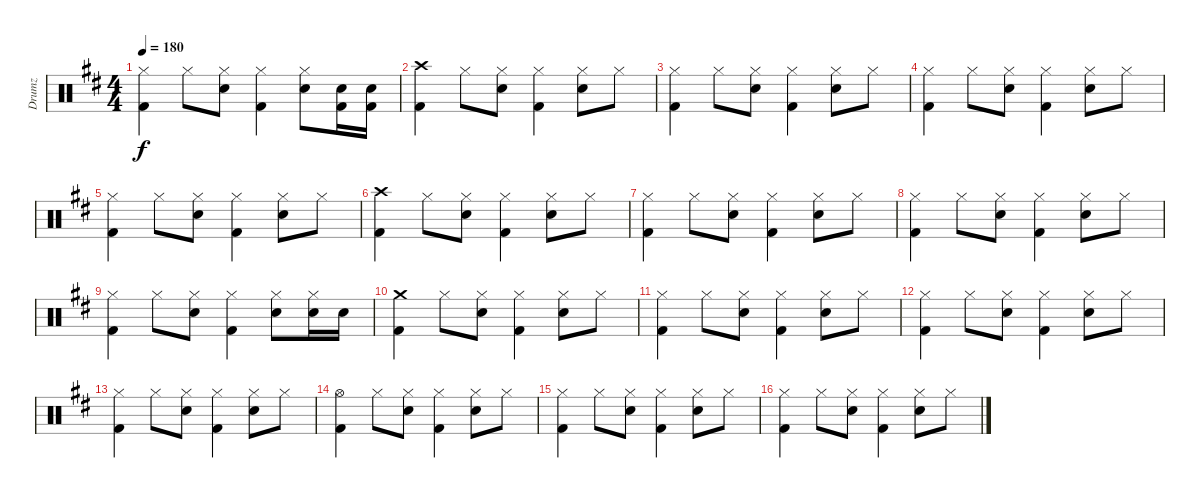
\track ("Drumz" "Drumz") {instrument percussion}
\staff {score}
\articulation defaults
\ts (4 4)
\tempo 180
\clef neutral
\ks d
("Hi-Hat (closed)" "Kick (hit) 2").4{dy f} "Hi-Hat (closed)".8 ("Hi-Hat (closed)" "Snare (hit) 2").8 ("Hi-Hat (closed)" "Kick (hit) 2").4 ("Hi-Hat (closed)" "Snare (hit) 2").8 ("Kick (hit) 2" "Snare (hit) 2").16 ("Kick (hit) 2" "Snare (hit) 2").16 |
("Crash high (hit)" "Kick (hit) 2").4 "Hi-Hat (closed)".8 ("Hi-Hat (closed)" "Snare (hit) 2").8 ("Hi-Hat (closed)" "Kick (hit) 2").4 ("Hi-Hat (closed)" "Snare (hit) 2").8 "Hi-Hat (closed)".8 |
("Hi-Hat (closed)" "Kick (hit) 2").4 "Hi-Hat (closed)".8 ("Hi-Hat (closed)" "Snare (hit) 2").8 ("Hi-Hat (closed)" "Kick (hit) 2").4 ("Hi-Hat (closed)" "Snare (hit) 2").8 "Hi-Hat (closed)".8 |
("Hi-Hat (closed)" "Kick (hit) 2").4 "Hi-Hat (closed)".8 ("Hi-Hat (closed)" "Snare (hit) 2").8 ("Hi-Hat (closed)" "Kick (hit) 2").4 ("Hi-Hat (closed)" "Snare (hit) 2").8 "Hi-Hat (closed)".8 |
("Hi-Hat (closed)" "Kick (hit) 2").4 "Hi-Hat (closed)".8 ("Hi-Hat (closed)" "Snare (hit) 2").8 ("Hi-Hat (closed)" "Kick (hit) 2").4 ("Hi-Hat (closed)" "Snare (hit) 2").8 "Hi-Hat (closed)".8 |
("Crash high (hit)" "Kick (hit) 2").4 "Hi-Hat (closed)".8 ("Hi-Hat (closed)" "Snare (hit) 2").8 ("Hi-Hat (closed)" "Kick (hit) 2").4 ("Hi-Hat (closed)" "Snare (hit) 2").8 "Hi-Hat (closed)".8 |
("Hi-Hat (closed)" "Kick (hit) 2").4 "Hi-Hat (closed)".8 ("Hi-Hat (closed)" "Snare (hit) 2").8 ("Hi-Hat (closed)" "Kick (hit) 2").4 ("Hi-Hat (closed)" "Snare (hit) 2").8 "Hi-Hat (closed)".8 |
("Hi-Hat (closed)" "Kick (hit) 2").4 "Hi-Hat (closed)".8 ("Hi-Hat (closed)" "Snare (hit) 2").8 ("Hi-Hat (closed)" "Kick (hit) 2").4 ("Hi-Hat (closed)" "Snare (hit) 2").8 "Hi-Hat (closed)".8 |
("Hi-Hat (closed)" "Kick (hit) 2").4 "Hi-Hat (closed)".8 ("Hi-Hat (closed)" "Snare (hit) 2").8 ("Hi-Hat (closed)" "Kick (hit) 2").4 ("Hi-Hat (closed)" "Snare (hit) 2").8 ("Hi-Hat (closed)" "Snare (hit) 2").16 "Snare (hit) 2".16 |
("Crash medium (hit)" "Kick (hit) 2").4 "Hi-Hat (closed)".8 ("Hi-Hat (closed)" "Snare (hit) 2").8 ("Hi-Hat (closed)" "Kick (hit) 2").4 ("Hi-Hat (closed)" "Snare (hit) 2").8 "Hi-Hat (closed)".8 |
("Hi-Hat (closed)" "Kick (hit) 2").4 "Hi-Hat (closed)".8 ("Hi-Hat (closed)" "Snare (hit) 2").8 ("Hi-Hat (closed)" "Kick (hit) 2").4 ("Hi-Hat (closed)" "Snare (hit) 2").8 "Hi-Hat (closed)".8 |
("Hi-Hat (closed)" "Kick (hit) 2").4 "Hi-Hat (closed)".8 ("Hi-Hat (closed)" "Snare (hit) 2").8 ("Hi-Hat (closed)" "Kick (hit) 2").4 ("Hi-Hat (closed)" "Snare (hit) 2").8 "Hi-Hat (closed)".8 |
("Hi-Hat (closed)" "Kick (hit) 2").4 "Hi-Hat (closed)".8 ("Hi-Hat (closed)" "Snare (hit) 2").8 ("Hi-Hat (closed)" "Kick (hit) 2").4 ("Hi-Hat (closed)" "Snare (hit) 2").8 "Hi-Hat (closed)".8 |
("Hi-Hat (open)" "Kick (hit) 2").4 "Hi-Hat (closed)".8 ("Hi-Hat (closed)" "Snare (hit) 2").8 ("Hi-Hat (closed)" "Kick (hit) 2").4 ("Hi-Hat (closed)" "Snare (hit) 2").8 "Hi-Hat (closed)".8 |
("Hi-Hat (closed)" "Kick (hit) 2").4 "Hi-Hat (closed)".8 ("Hi-Hat (closed)" "Snare (hit) 2").8 ("Hi-Hat (closed)" "Kick (hit) 2").4 ("Hi-Hat (closed)" "Snare (hit) 2").8 "Hi-Hat (closed)".8 |
("Hi-Hat (closed)" "Kick (hit) 2").4 "Hi-Hat (closed)".8 ("Hi-Hat (closed)" "Snare (hit) 2").8 ("Hi-Hat (closed)" "Kick (hit) 2").4 ("Hi-Hat (closed)" "Snare (hit) 2").8 "Hi-Hat (closed)".8
